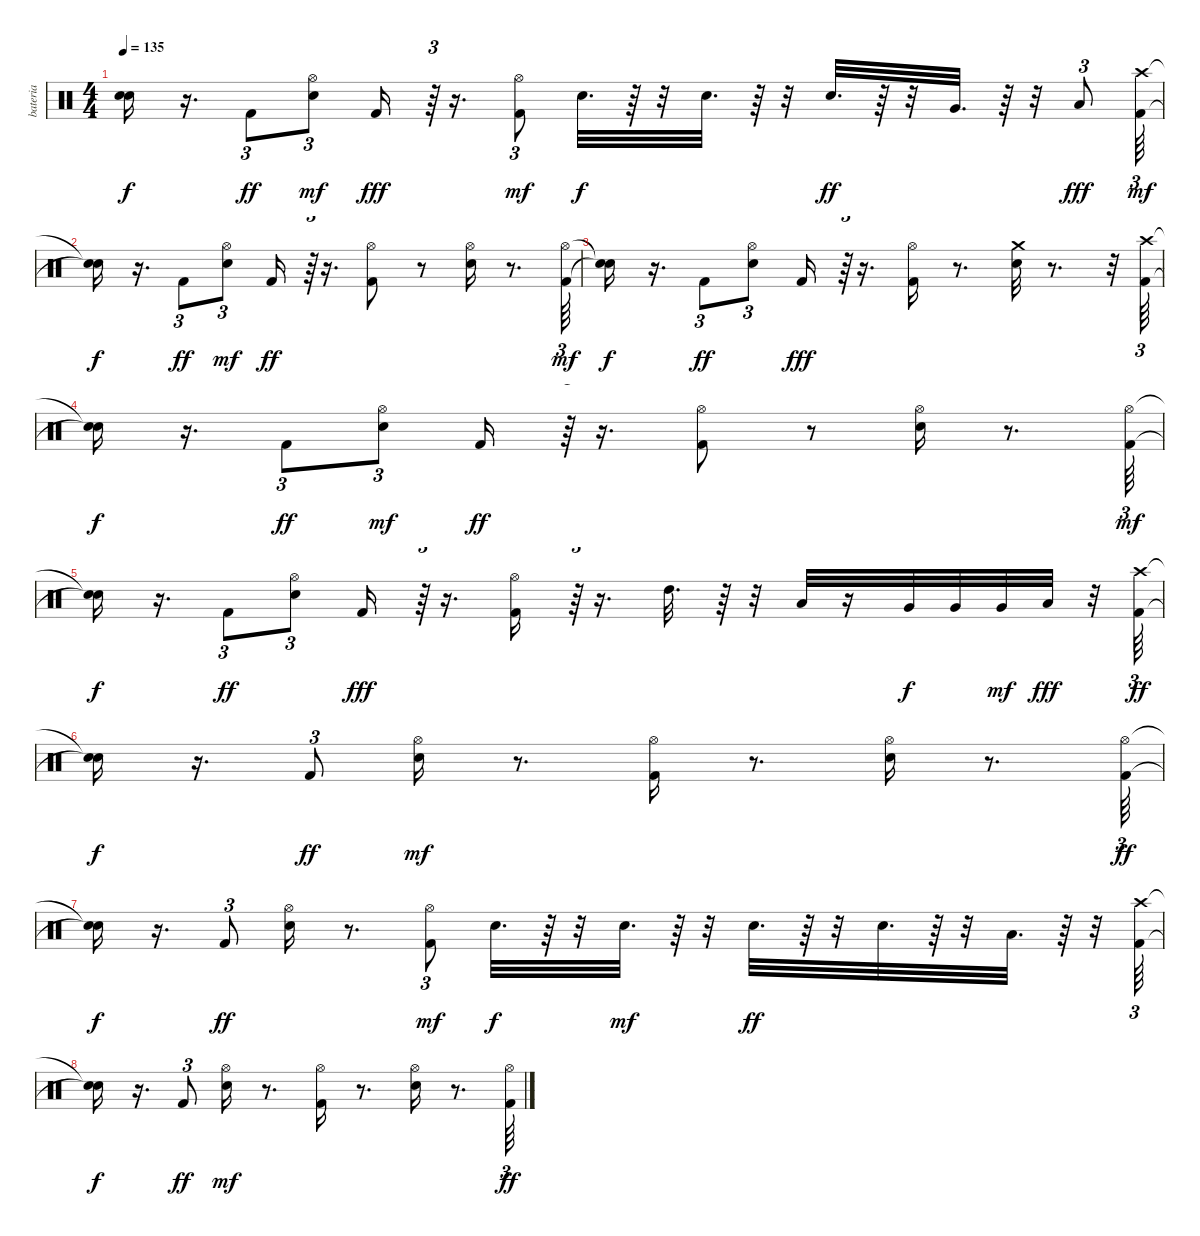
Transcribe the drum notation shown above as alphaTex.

\track ("bateria" "bateria") {instrument percussion}
\staff {score}
\articulation defaults
\ts (4 4)
\tempo 135
\clef neutral
\ks c
("Snare (hit)"{t} "Snare (hit)"{t}).16{dy f} r.16{d} "Kick (hit) 2".8{tu (3 2) dy ff} ("Electric Snare (hit)" "Hi-Hat (open)").8{tu (3 2) dy mf} "Kick (hit) 2".16{dy fff} r.64{tu (3 2)} r.16{d} ("Kick (hit) 2" "Hi-Hat (open)").8{tu (3 2) dy mf} "Electric Snare (hit)".32{d dy f} r.64 r.32 "Electric Snare (hit)".32{d} r.64 r.32 "Electric Snare (hit)".32{d dy ff} r.64 r.32 "Very Low Tom (hit)".32{d} r.64 r.32 "Low Floor Tom (hit)".8{tu (3 2) dy fff} ("Kick (hit) 2" "Crash high (hit)").64{tu (3 2) dy mf} |
("Snare (hit)"{t} "Snare (hit)"{t}).16{dy f} r.16{d} "Kick (hit) 2".8{tu (3 2) dy ff} ("Hi-Hat (open)" "Electric Snare (hit)").8{tu (3 2) dy mf} "Kick (hit) 2".16{dy ff} r.64{tu (3 2)} r.16{d} ("Hi-Hat (open)" "Kick (hit) 2").8 r.8 ("Hi-Hat (open)" "Electric Snare (hit)").16 r.8{d} ("Kick (hit) 2" "Hi-Hat (open)").64{tu (3 2) dy mf} |
("Snare (hit)"{t} "Snare (hit)"{t}).16{dy f} r.16{d} "Kick (hit) 2".8{tu (3 2) dy ff} ("Hi-Hat (open)" "Electric Snare (hit)").8{tu (3 2)} "Kick (hit) 2".16{dy fff} r.64{tu (3 2)} r.16{d} ("Hi-Hat (open)" "Kick (hit) 2").16 r.8{d} ("Crash medium (hit)" "Electric Snare (hit)").32 r.8{d} r.32 ("Crash high (hit)" "Kick (hit) 2").64{tu (3 2)} |
("Snare (hit)"{t} "Snare (hit)"{t}).16{dy f} r.16{d} "Kick (hit) 2".8{tu (3 2) dy ff} ("Hi-Hat (open)" "Electric Snare (hit)").8{tu (3 2) dy mf} "Kick (hit) 2".16{dy ff} r.64{tu (3 2)} r.16{d} ("Hi-Hat (open)" "Kick (hit) 2").8 r.8 ("Hi-Hat (open)" "Electric Snare (hit)").16 r.8{d} ("Kick (hit) 2" "Hi-Hat (open)").64{tu (3 2) dy mf} |
("Snare (hit)"{t} "Snare (hit)"{t}).16{dy f} r.16{d} "Kick (hit) 2".8{tu (3 2) dy ff} ("Hi-Hat (open)" "Electric Snare (hit)").8{tu (3 2)} "Kick (hit) 2".16{dy fff} r.64{tu (3 2)} r.16{d} ("Hi-Hat (open)" "Kick (hit) 2").16 r.64{tu (3 2)} r.16{d} "High Tom (hit)".32{d} r.64 r.32 "Low Tom (hit)".32 r.16 "Very Low Tom (hit)".32{dy f} "Very Low Tom (hit)".32 "Very Low Tom (hit)".32{dy mf} "Low Floor Tom (hit)".32{dy fff} r.32 ("Crash high (hit)" "Kick (hit) 2").64{tu (3 2) dy ff} |
("Snare (hit)"{t} "Snare (hit)"{t}).16{dy f} r.16{d} "Kick (hit) 2".8{tu (3 2) dy ff} ("Electric Snare (hit)" "Hi-Hat (open)").16{dy mf} r.8{d} ("Kick (hit) 2" "Hi-Hat (open)").16 r.8{d} ("Electric Snare (hit)" "Hi-Hat (open)").16 r.8{d} ("Kick (hit) 2" "Hi-Hat (open)").64{tu (3 2) dy ff} |
("Snare (hit)"{t} "Snare (hit)"{t}).16{dy f} r.16{d} "Kick (hit) 2".8{tu (3 2) dy ff} ("Electric Snare (hit)" "Hi-Hat (open)").16 r.8{d} ("Kick (hit) 2" "Hi-Hat (open)").8{tu (3 2) dy mf} "Electric Snare (hit)".32{d dy f} r.64 r.32 "Electric Snare (hit)".32{d dy mf} r.64 r.32 "Electric Snare (hit)".32{d dy ff} r.64 r.32 "Electric Snare (hit)".32{d} r.64 r.32 "Low Floor Tom (hit)".32{d} r.64 r.32 ("Crash high (hit)" "Kick (hit) 2").64{tu (3 2)} |
("Snare (hit)"{t} "Snare (hit)"{t}).16{dy f} r.16{d} "Kick (hit) 2".8{tu (3 2) dy ff} ("Electric Snare (hit)" "Hi-Hat (open)").16{dy mf} r.8{d} ("Kick (hit) 2" "Hi-Hat (open)").16 r.8{d} ("Electric Snare (hit)" "Hi-Hat (open)").16 r.8{d} ("Kick (hit) 2" "Hi-Hat (open)").64{tu (3 2) dy ff}
